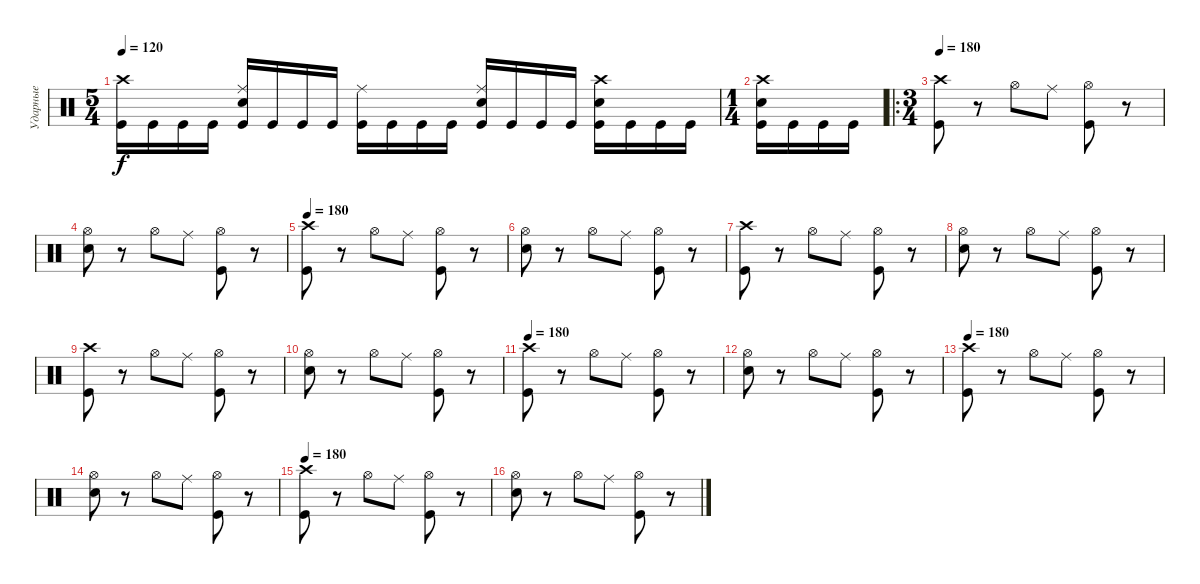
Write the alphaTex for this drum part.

\track ("Ударные" "Ударные") {instrument percussion}
\staff {score}
\articulation defaults
\ts (5 4)
\tempo 120
\clef neutral
\ks c
("Crash high (hit)" "Kick (hit)").16{dy f} "Kick (hit)".16 "Kick (hit)".16 "Kick (hit)".16 ("Ride (middle)" "Snare (hit) 2" "Kick (hit)").16 "Kick (hit)".16 "Kick (hit)".16 "Kick (hit)".16 ("Ride (middle)" "Kick (hit)").16 "Kick (hit)".16 "Kick (hit)".16 "Kick (hit)".16 ("Ride (middle)" "Snare (hit) 2" "Kick (hit)").16 "Kick (hit)".16 "Kick (hit)".16 "Kick (hit)".16 ("Crash high (hit)" "Snare (hit) 2" "Kick (hit)").16 "Kick (hit)".16 "Kick (hit)".16 "Kick (hit)".16 |
\ts (1 4)
("Crash high (hit)" "Snare (hit) 2" "Kick (hit)").16 "Kick (hit)".16 "Kick (hit)".16 "Kick (hit)".16 |
\ro
\ts (3 4)
\tempo 180
("Kick (hit)" "Crash high (hit)").8 r.8 "Hi-Hat (open)".8 "Ride (middle)".8 ("Kick (hit)" "Hi-Hat (open)").8 r.8 |
("Hi-Hat (open)" "Snare (hit) 2").8 r.8 "Hi-Hat (open)".8 "Ride (middle)".8 ("Kick (hit)" "Hi-Hat (open)").8 r.8 |
\tempo 180
("Kick (hit)" "Crash high (hit)").8 r.8 "Hi-Hat (open)".8 "Ride (middle)".8 ("Kick (hit)" "Hi-Hat (open)").8 r.8 |
("Hi-Hat (open)" "Snare (hit) 2").8 r.8 "Hi-Hat (open)".8 "Ride (middle)".8 ("Kick (hit)" "Hi-Hat (open)").8 r.8 |
("Kick (hit)" "Crash high (hit)").8 r.8 "Hi-Hat (open)".8 "Ride (middle)".8 ("Kick (hit)" "Hi-Hat (open)").8 r.8 |
("Hi-Hat (open)" "Snare (hit) 2").8 r.8 "Hi-Hat (open)".8 "Ride (middle)".8 ("Kick (hit)" "Hi-Hat (open)").8 r.8 |
("Kick (hit)" "Crash high (hit)").8 r.8 "Hi-Hat (open)".8 "Ride (middle)".8 ("Kick (hit)" "Hi-Hat (open)").8 r.8 |
("Hi-Hat (open)" "Snare (hit) 2").8 r.8 "Hi-Hat (open)".8 "Ride (middle)".8 ("Kick (hit)" "Hi-Hat (open)").8 r.8 |
\tempo 180
("Kick (hit)" "Crash high (hit)").8 r.8 "Hi-Hat (open)".8 "Ride (middle)".8 ("Kick (hit)" "Hi-Hat (open)").8 r.8 |
("Hi-Hat (open)" "Snare (hit) 2").8 r.8 "Hi-Hat (open)".8 "Ride (middle)".8 ("Kick (hit)" "Hi-Hat (open)").8 r.8 |
\tempo 180
("Kick (hit)" "Crash high (hit)").8 r.8 "Hi-Hat (open)".8 "Ride (middle)".8 ("Kick (hit)" "Hi-Hat (open)").8 r.8 |
("Hi-Hat (open)" "Snare (hit) 2").8 r.8 "Hi-Hat (open)".8 "Ride (middle)".8 ("Kick (hit)" "Hi-Hat (open)").8 r.8 |
\tempo 180
("Kick (hit)" "Crash high (hit)").8 r.8 "Hi-Hat (open)".8 "Ride (middle)".8 ("Kick (hit)" "Hi-Hat (open)").8 r.8 |
("Hi-Hat (open)" "Snare (hit) 2").8 r.8 "Hi-Hat (open)".8 "Ride (middle)".8 ("Kick (hit)" "Hi-Hat (open)").8 r.8
